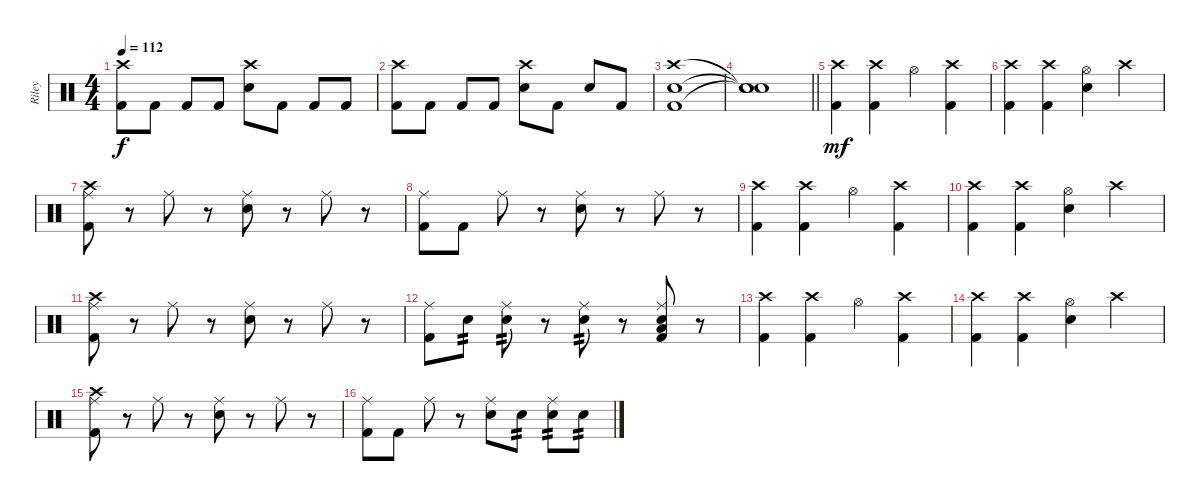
\track ("Riley" "Riley") {instrument percussion}
\staff {score}
\articulation defaults
\ts (4 4)
\tempo 112
\clef neutral
\ks c
("Crash high (hit)" "Kick (hit) 2").8{dy f} "Kick (hit) 2".8 "Kick (hit) 2".8 "Kick (hit) 2".8 ("Crash high (hit)" "Snare (hit) 2").8 "Kick (hit) 2".8 "Kick (hit) 2".8 "Kick (hit) 2".8 |
("Crash high (hit)" "Kick (hit) 2").8 "Kick (hit) 2".8 "Kick (hit) 2".8 "Kick (hit) 2".8 ("Crash high (hit)" "Snare (hit) 2").8 "Kick (hit) 2".8 "Snare (hit) 2".8 "Kick (hit) 2".8 |
("Crash high (hit)" "Snare (hit) 2" "Kick (hit) 2").1 |
\barLineRight lightlight
("Snare (hit)"{t} "Snare (hit)"{t} "Snare (hit)"{t}).1 |
("Crash high (hit)" "Kick (hit) 2").4{dy mf} ("Crash high (hit)" "Kick (hit) 2").4 "Hi-Hat (open)".4 ("Crash high (hit)" "Kick (hit) 2").4 |
("Crash high (hit)" "Kick (hit) 2").4 ("Crash high (hit)" "Kick (hit) 2").4 ("Hi-Hat (open)" "Snare (hit) 2").4 "Crash high (hit)".4 |
("Crash high (hit)" "Ride (middle)" "Kick (hit) 2").8 r.8 "Ride (middle)".8 r.8 ("Ride (middle)" "Snare (hit) 2").8 r.8 "Ride (middle)".8 r.8 |
("Ride (middle)" "Kick (hit) 2").8 "Kick (hit) 2".8 "Ride (middle)".8 r.8 ("Ride (middle)" "Snare (hit) 2").8 r.8 "Ride (middle)".8 r.8 |
("Crash high (hit)" "Kick (hit) 2").4 ("Crash high (hit)" "Kick (hit) 2").4 "Hi-Hat (open)".4 ("Crash high (hit)" "Kick (hit) 2").4 |
("Crash high (hit)" "Kick (hit) 2").4 ("Crash high (hit)" "Kick (hit) 2").4 ("Hi-Hat (open)" "Snare (hit) 2").4 "Crash high (hit)".4 |
("Crash high (hit)" "Ride (middle)" "Kick (hit) 2").8 r.8 "Ride (middle)".8 r.8 ("Ride (middle)" "Snare (hit) 2").8 r.8 "Ride (middle)".8 r.8 |
("Ride (middle)" "Kick (hit) 2").8 "Snare (hit) 2".8{tp 2} ("Ride (middle)" "Snare (hit) 2").8{tp 2} r.8 ("Ride (middle)" "Snare (hit) 2").8{tp 2} r.8 ("Ride (middle)" "Snare (hit) 2" "Low Floor Tom (hit)" "Kick (hit) 2").8 r.8 |
("Crash high (hit)" "Kick (hit) 2").4 ("Crash high (hit)" "Kick (hit) 2").4 "Hi-Hat (open)".4 ("Crash high (hit)" "Kick (hit) 2").4 |
("Crash high (hit)" "Kick (hit) 2").4 ("Crash high (hit)" "Kick (hit) 2").4 ("Hi-Hat (open)" "Snare (hit) 2").4 "Crash high (hit)".4 |
("Crash high (hit)" "Ride (middle)" "Kick (hit) 2").8 r.8 "Ride (middle)".8 r.8 ("Ride (middle)" "Snare (hit) 2").8 r.8 "Ride (middle)".8 r.8 |
("Ride (middle)" "Kick (hit) 2").8 "Kick (hit) 2".8 "Ride (middle)".8 r.8 ("Ride (middle)" "Snare (hit) 2").8 "Snare (hit) 2".8{tp 2} ("Ride (middle)" "Snare (hit) 2").8{tp 2} "Snare (hit) 2".8{tp 2}
